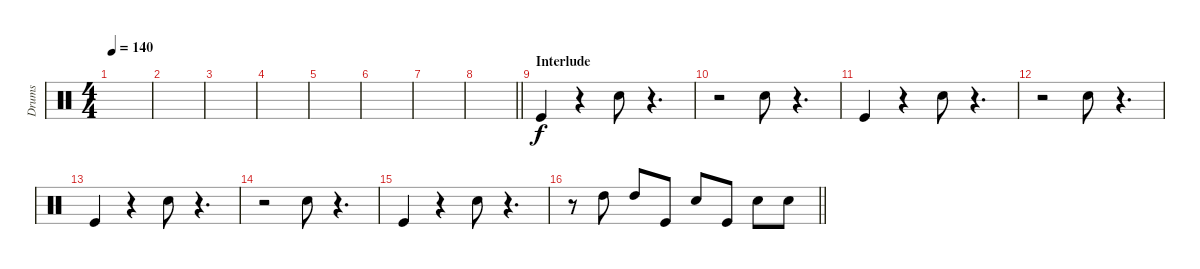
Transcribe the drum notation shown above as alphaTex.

\track ("Drums" "Drums") {instrument percussion}
\staff {score}
\articulation defaults
\ts (4 4)
\tempo 140
\clef neutral
\ks c
|
|
|
|
|
|
|
\barLineRight lightlight
|
\section ("" "Interlude")
"Kick (hit)".4 r.4 "Snare (hit) 2".8 r.4{d} |
r.2 "Snare (hit) 2".8 r.4{d} |
"Kick (hit)".4 r.4 "Snare (hit) 2".8 r.4{d} |
r.2 "Snare (hit) 2".8 r.4{d} |
"Kick (hit)".4 r.4 "Snare (hit) 2".8 r.4{d} |
r.2 "Snare (hit) 2".8 r.4{d} |
"Kick (hit)".4 r.4 "Snare (hit) 2".8 r.4{d} |
\barLineRight lightlight
r.8 "High Tom (hit)".8 "High Tom (hit)".8 "Kick (hit)".8 "Snare (hit) 2".8 "Kick (hit)".8 "Snare (hit) 2".8 "Snare (hit) 2".8
